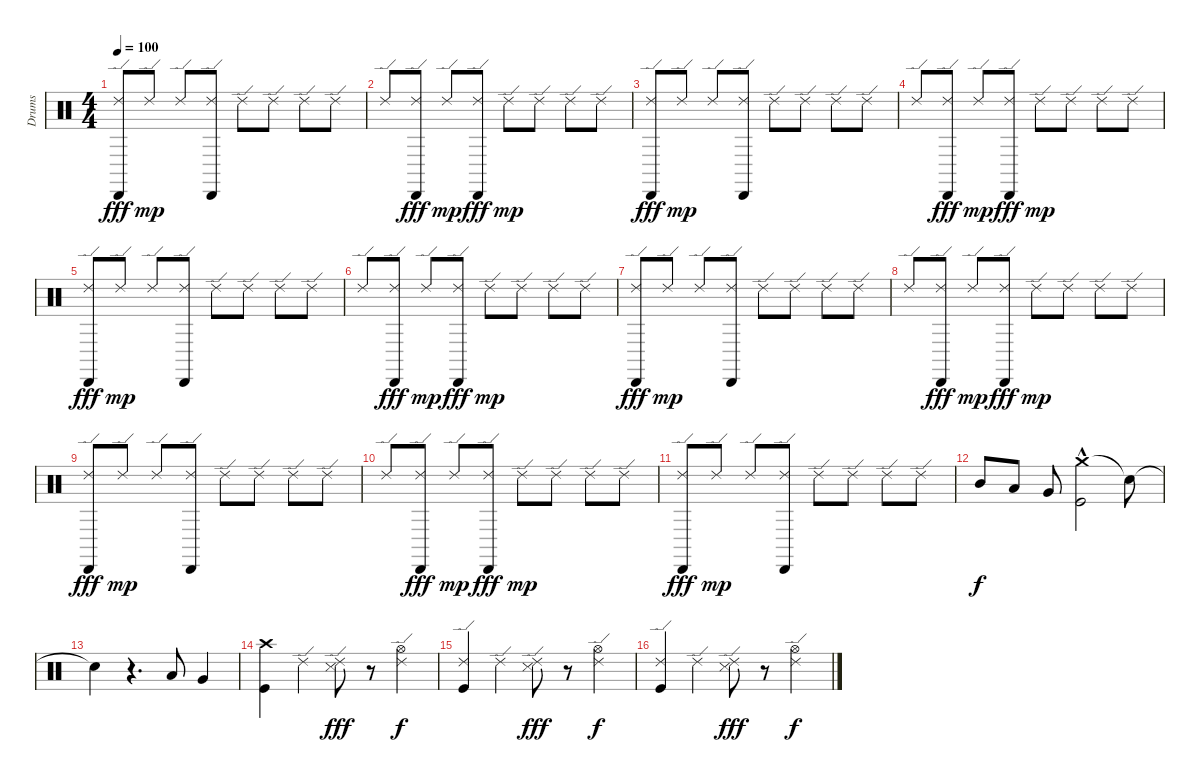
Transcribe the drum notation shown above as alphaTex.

\track ("Drums" "Drums") {instrument percussion}
\staff {score}
\articulation defaults
\ts (4 4)
\tempo 100
\clef neutral
\ks c
("Ride (edge) 2" "Cabasa (hit)").8{dy fff} "Ride (edge) 2".8{dy mp} "Ride (edge) 2".8 ("Cabasa (hit)" "Ride (edge) 2").8 "Ride (edge) 2".8 "Ride (edge) 2".8 "Ride (edge) 2".8 "Ride (edge) 2".8 |
"Ride (edge) 2".8 ("Ride (edge) 2" "Cabasa (hit)").8{dy fff} "Ride (edge) 2".8{dy mp} ("Ride (edge) 2" "Cabasa (hit)").8{dy fff} "Ride (edge) 2".8{dy mp} "Ride (edge) 2".8 "Ride (edge) 2".8 "Ride (edge) 2".8 |
("Ride (edge) 2" "Cabasa (hit)").8{dy fff} "Ride (edge) 2".8{dy mp} "Ride (edge) 2".8 ("Cabasa (hit)" "Ride (edge) 2").8 "Ride (edge) 2".8 "Ride (edge) 2".8 "Ride (edge) 2".8 "Ride (edge) 2".8 |
"Ride (edge) 2".8 ("Ride (edge) 2" "Cabasa (hit)").8{dy fff} "Ride (edge) 2".8{dy mp} ("Ride (edge) 2" "Cabasa (hit)").8{dy fff} "Ride (edge) 2".8{dy mp} "Ride (edge) 2".8 "Ride (edge) 2".8 "Ride (edge) 2".8 |
("Ride (edge) 2" "Cabasa (hit)").8{dy fff} "Ride (edge) 2".8{dy mp} "Ride (edge) 2".8 ("Cabasa (hit)" "Ride (edge) 2").8 "Ride (edge) 2".8 "Ride (edge) 2".8 "Ride (edge) 2".8 "Ride (edge) 2".8 |
"Ride (edge) 2".8 ("Ride (edge) 2" "Cabasa (hit)").8{dy fff} "Ride (edge) 2".8{dy mp} ("Ride (edge) 2" "Cabasa (hit)").8{dy fff} "Ride (edge) 2".8{dy mp} "Ride (edge) 2".8 "Ride (edge) 2".8 "Ride (edge) 2".8 |
("Ride (edge) 2" "Cabasa (hit)").8{dy fff} "Ride (edge) 2".8{dy mp} "Ride (edge) 2".8 ("Cabasa (hit)" "Ride (edge) 2").8 "Ride (edge) 2".8 "Ride (edge) 2".8 "Ride (edge) 2".8 "Ride (edge) 2".8 |
"Ride (edge) 2".8 ("Ride (edge) 2" "Cabasa (hit)").8{dy fff} "Ride (edge) 2".8{dy mp} ("Ride (edge) 2" "Cabasa (hit)").8{dy fff} "Ride (edge) 2".8{dy mp} "Ride (edge) 2".8 "Ride (edge) 2".8 "Ride (edge) 2".8 |
("Ride (edge) 2" "Cabasa (hit)").8{dy fff} "Ride (edge) 2".8{dy mp} "Ride (edge) 2".8 ("Cabasa (hit)" "Ride (edge) 2").8 "Ride (edge) 2".8 "Ride (edge) 2".8 "Ride (edge) 2".8 "Ride (edge) 2".8 |
"Ride (edge) 2".8 ("Ride (edge) 2" "Cabasa (hit)").8{dy fff} "Ride (edge) 2".8{dy mp} ("Ride (edge) 2" "Cabasa (hit)").8{dy fff} "Ride (edge) 2".8{dy mp} "Ride (edge) 2".8 "Ride (edge) 2".8 "Ride (edge) 2".8 |
("Ride (edge) 2" "Cabasa (hit)").8{dy fff} "Ride (edge) 2".8{dy mp} "Ride (edge) 2".8 ("Cabasa (hit)" "Ride (edge) 2").8 "Ride (edge) 2".8 "Ride (edge) 2".8 "Ride (edge) 2".8 "Ride (edge) 2".8 |
"Mid Tom (hit)".8{dy f} "Low Tom (hit)".8 "Very Low Tom (hit)".8 ("Crash medium (hit)" "Kick (hit)"{hac}).2 "Snare (hit)"{t}.8 |
"Snare (hit)"{t}.4 r.4{d} "Low Tom (hit)".8 "Very Low Tom (hit)".4 |
("Kick (hit)" "Crash high (hit)").4 "Ride (edge) 2".4 ("Snare (side stick) 3" "Ride (edge) 2").8{dy fff} r.8 ("Hi-Hat (open)" "Ride (edge) 2").4{dy f} |
("Kick (hit)" "Ride (edge) 2").4 "Ride (edge) 2".4 ("Snare (side stick) 3" "Ride (edge) 2").8{dy fff} r.8 ("Hi-Hat (open)" "Ride (edge) 2").4{dy f} |
("Kick (hit)" "Ride (edge) 2").4 "Ride (edge) 2".4 ("Snare (side stick) 3" "Ride (edge) 2").8{dy fff} r.8 ("Hi-Hat (open)" "Ride (edge) 2").4{dy f}
